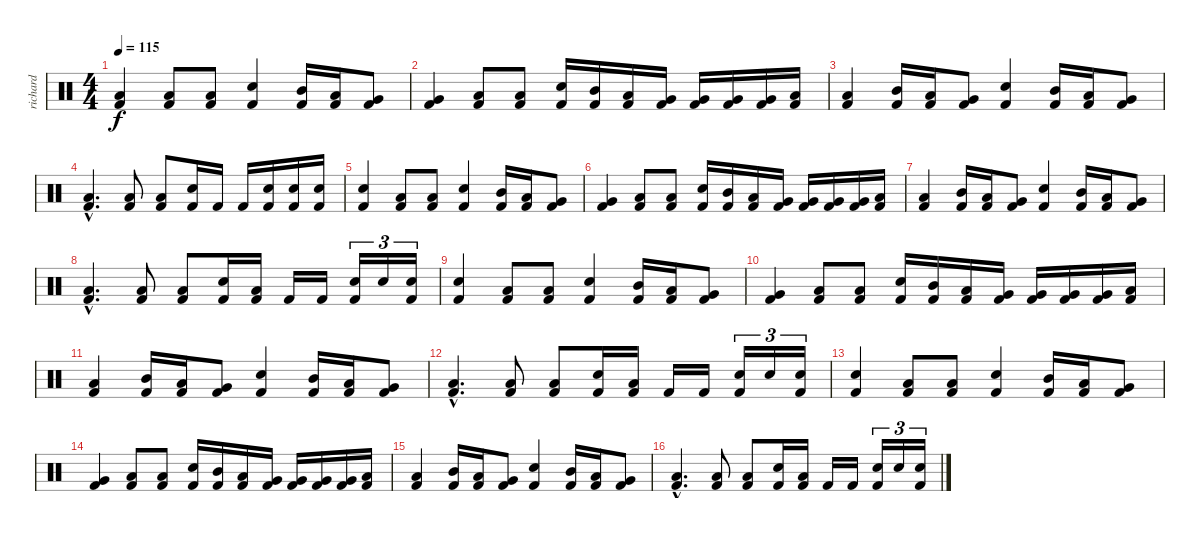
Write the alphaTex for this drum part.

\track ("richard" "richard") {instrument percussion}
\staff {score}
\articulation defaults
\ts (4 4)
\tempo 115
\clef neutral
\ks c
("Low Tom (hit)" "Kick (hit) 2").4{dy f} ("Low Tom (hit)" "Kick (hit) 2").8 ("Low Tom (hit)" "Kick (hit) 2").8 ("Electric Snare (hit)" "Kick (hit) 2").4 ("Mid Tom (hit)" "Kick (hit) 2").16 ("Low Tom (hit)" "Kick (hit) 2").16 ("Very Low Tom (hit)" "Kick (hit) 2").8 |
("Very Low Tom (hit)" "Kick (hit) 2").4 ("Low Tom (hit)" "Kick (hit) 2").8 ("Low Tom (hit)" "Kick (hit) 2").8 ("Snare (hit) 2" "Kick (hit) 2").16 ("Mid Tom (hit)" "Kick (hit) 2").16 ("Low Tom (hit)" "Kick (hit) 2").16 ("Very Low Tom (hit)" "Kick (hit) 2").16 ("Very Low Tom (hit)" "Kick (hit) 2").16 ("Very Low Tom (hit)" "Kick (hit) 2").16 ("Very Low Tom (hit)" "Kick (hit) 2").16 ("Low Tom (hit)" "Kick (hit) 2").16 |
("Low Tom (hit)" "Kick (hit) 2").4 ("Mid Tom (hit)" "Kick (hit) 2").16 ("Low Tom (hit)" "Kick (hit) 2").16 ("Very Low Tom (hit)" "Kick (hit) 2").8 ("Electric Snare (hit)" "Kick (hit) 2").4 ("Mid Tom (hit)" "Kick (hit) 2").16 ("Low Tom (hit)" "Kick (hit) 2").16 ("Very Low Tom (hit)" "Kick (hit) 2").8 |
("Low Tom (hit)"{hac} "Kick (hit) 2"{hac}).4{d} ("Low Tom (hit)" "Kick (hit) 2").8 ("Low Tom (hit)" "Kick (hit) 2").8 ("Electric Snare (hit)" "Kick (hit) 2").16 "Kick (hit) 2".16 "Kick (hit) 2".16 ("Electric Snare (hit)" "Kick (hit) 2").16 ("Electric Snare (hit)" "Kick (hit) 2").16 ("Electric Snare (hit)" "Kick (hit) 2").16 |
("Electric Snare (hit)" "Kick (hit) 2").4 ("Low Tom (hit)" "Kick (hit) 2").8 ("Low Tom (hit)" "Kick (hit) 2").8 ("Electric Snare (hit)" "Kick (hit) 2").4 ("Mid Tom (hit)" "Kick (hit) 2").16 ("Low Tom (hit)" "Kick (hit) 2").16 ("Very Low Tom (hit)" "Kick (hit) 2").8 |
("Very Low Tom (hit)" "Kick (hit) 2").4 ("Low Tom (hit)" "Kick (hit) 2").8 ("Low Tom (hit)" "Kick (hit) 2").8 ("Snare (hit) 2" "Kick (hit) 2").16 ("Mid Tom (hit)" "Kick (hit) 2").16 ("Low Tom (hit)" "Kick (hit) 2").16 ("Very Low Tom (hit)" "Kick (hit) 2").16 ("Very Low Tom (hit)" "Kick (hit) 2").16 ("Very Low Tom (hit)" "Kick (hit) 2").16 ("Very Low Tom (hit)" "Kick (hit) 2").16 ("Low Tom (hit)" "Kick (hit) 2").16 |
("Low Tom (hit)" "Kick (hit) 2").4 ("Mid Tom (hit)" "Kick (hit) 2").16 ("Low Tom (hit)" "Kick (hit) 2").16 ("Very Low Tom (hit)" "Kick (hit) 2").8 ("Electric Snare (hit)" "Kick (hit) 2").4 ("Mid Tom (hit)" "Kick (hit) 2").16 ("Low Tom (hit)" "Kick (hit) 2").16 ("Very Low Tom (hit)" "Kick (hit) 2").8 |
("Low Tom (hit)"{hac} "Kick (hit) 2"{hac}).4{d} ("Low Tom (hit)" "Kick (hit) 2").8 ("Low Tom (hit)" "Kick (hit) 2").8 ("Electric Snare (hit)" "Kick (hit) 2").16 ("Low Tom (hit)" "Kick (hit) 2").16 "Kick (hit) 2".16 "Kick (hit) 2".16 ("Electric Snare (hit)" "Kick (hit) 2").16{tu (3 2)} "Electric Snare (hit)".16{tu (3 2)} ("Electric Snare (hit)" "Kick (hit) 2").16{tu (3 2)} |
("Electric Snare (hit)" "Kick (hit) 2").4 ("Low Tom (hit)" "Kick (hit) 2").8 ("Low Tom (hit)" "Kick (hit) 2").8 ("Electric Snare (hit)" "Kick (hit) 2").4 ("Mid Tom (hit)" "Kick (hit) 2").16 ("Low Tom (hit)" "Kick (hit) 2").16 ("Very Low Tom (hit)" "Kick (hit) 2").8 |
("Very Low Tom (hit)" "Kick (hit) 2").4 ("Low Tom (hit)" "Kick (hit) 2").8 ("Low Tom (hit)" "Kick (hit) 2").8 ("Snare (hit) 2" "Kick (hit) 2").16 ("Mid Tom (hit)" "Kick (hit) 2").16 ("Low Tom (hit)" "Kick (hit) 2").16 ("Very Low Tom (hit)" "Kick (hit) 2").16 ("Very Low Tom (hit)" "Kick (hit) 2").16 ("Very Low Tom (hit)" "Kick (hit) 2").16 ("Very Low Tom (hit)" "Kick (hit) 2").16 ("Low Tom (hit)" "Kick (hit) 2").16 |
("Low Tom (hit)" "Kick (hit) 2").4 ("Mid Tom (hit)" "Kick (hit) 2").16 ("Low Tom (hit)" "Kick (hit) 2").16 ("Very Low Tom (hit)" "Kick (hit) 2").8 ("Electric Snare (hit)" "Kick (hit) 2").4 ("Mid Tom (hit)" "Kick (hit) 2").16 ("Low Tom (hit)" "Kick (hit) 2").16 ("Very Low Tom (hit)" "Kick (hit) 2").8 |
("Low Tom (hit)"{hac} "Kick (hit) 2"{hac}).4{d} ("Low Tom (hit)" "Kick (hit) 2").8 ("Low Tom (hit)" "Kick (hit) 2").8 ("Electric Snare (hit)" "Kick (hit) 2").16 ("Low Tom (hit)" "Kick (hit) 2").16 "Kick (hit) 2".16 "Kick (hit) 2".16 ("Electric Snare (hit)" "Kick (hit) 2").16{tu (3 2)} "Electric Snare (hit)".16{tu (3 2)} ("Electric Snare (hit)" "Kick (hit) 2").16{tu (3 2)} |
("Electric Snare (hit)" "Kick (hit) 2").4 ("Low Tom (hit)" "Kick (hit) 2").8 ("Low Tom (hit)" "Kick (hit) 2").8 ("Electric Snare (hit)" "Kick (hit) 2").4 ("Mid Tom (hit)" "Kick (hit) 2").16 ("Low Tom (hit)" "Kick (hit) 2").16 ("Very Low Tom (hit)" "Kick (hit) 2").8 |
("Very Low Tom (hit)" "Kick (hit) 2").4 ("Low Tom (hit)" "Kick (hit) 2").8 ("Low Tom (hit)" "Kick (hit) 2").8 ("Snare (hit) 2" "Kick (hit) 2").16 ("Mid Tom (hit)" "Kick (hit) 2").16 ("Low Tom (hit)" "Kick (hit) 2").16 ("Very Low Tom (hit)" "Kick (hit) 2").16 ("Very Low Tom (hit)" "Kick (hit) 2").16 ("Very Low Tom (hit)" "Kick (hit) 2").16 ("Very Low Tom (hit)" "Kick (hit) 2").16 ("Low Tom (hit)" "Kick (hit) 2").16 |
("Low Tom (hit)" "Kick (hit) 2").4 ("Mid Tom (hit)" "Kick (hit) 2").16 ("Low Tom (hit)" "Kick (hit) 2").16 ("Very Low Tom (hit)" "Kick (hit) 2").8 ("Electric Snare (hit)" "Kick (hit) 2").4 ("Mid Tom (hit)" "Kick (hit) 2").16 ("Low Tom (hit)" "Kick (hit) 2").16 ("Very Low Tom (hit)" "Kick (hit) 2").8 |
("Low Tom (hit)"{hac} "Kick (hit) 2"{hac}).4{d} ("Low Tom (hit)" "Kick (hit) 2").8 ("Low Tom (hit)" "Kick (hit) 2").8 ("Electric Snare (hit)" "Kick (hit) 2").16 ("Low Tom (hit)" "Kick (hit) 2").16 "Kick (hit) 2".16 "Kick (hit) 2".16 ("Electric Snare (hit)" "Kick (hit) 2").16{tu (3 2)} "Electric Snare (hit)".16{tu (3 2)} ("Electric Snare (hit)" "Kick (hit) 2").16{tu (3 2)}
